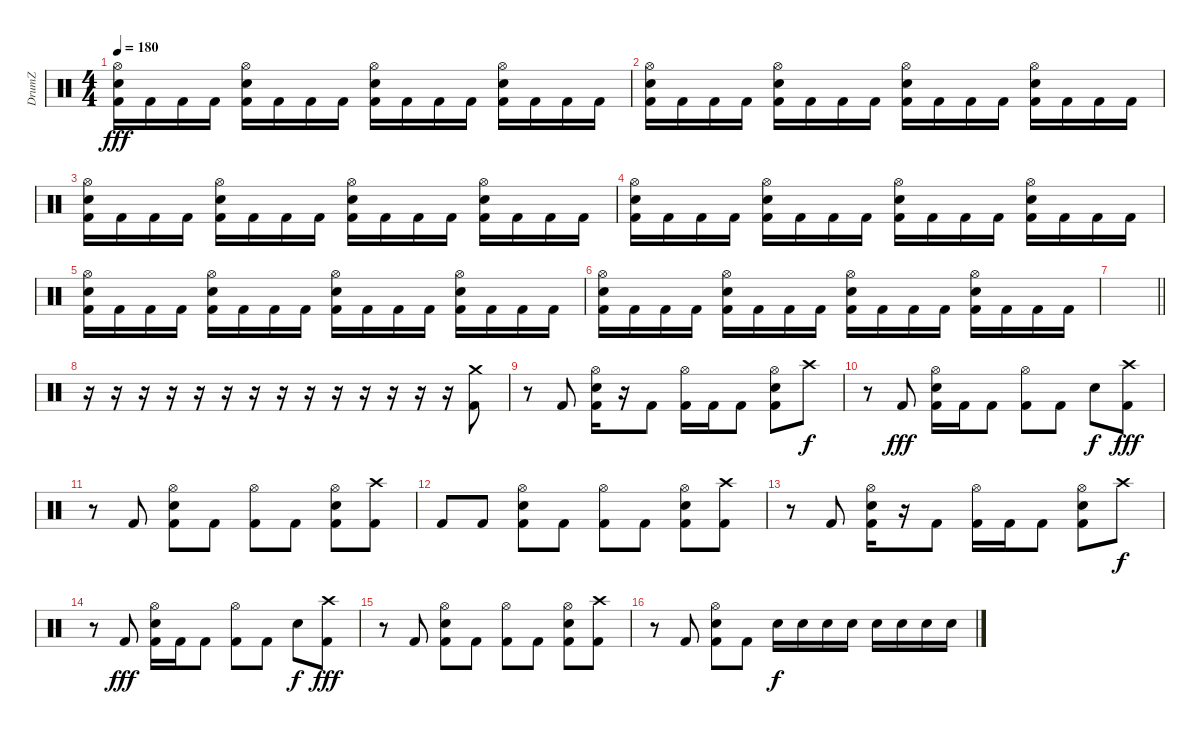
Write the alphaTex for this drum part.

\track ("DrumZ" "DrumZ") {instrument percussion}
\staff {score}
\articulation defaults
\ts (4 4)
\tempo 180
\clef neutral
\ks c
("Hi-Hat (open)" "Electric Snare (hit)" "Kick (hit) 2").16{dy fff} "Kick (hit) 2".16 "Kick (hit) 2".16 "Kick (hit) 2".16 ("Hi-Hat (open)" "Electric Snare (hit)" "Kick (hit) 2").16 "Kick (hit) 2".16 "Kick (hit) 2".16 "Kick (hit) 2".16 ("Hi-Hat (open)" "Electric Snare (hit)" "Kick (hit) 2").16 "Kick (hit) 2".16 "Kick (hit) 2".16 "Kick (hit) 2".16 ("Hi-Hat (open)" "Electric Snare (hit)" "Kick (hit) 2").16 "Kick (hit) 2".16 "Kick (hit) 2".16 "Kick (hit) 2".16 |
("Hi-Hat (open)" "Electric Snare (hit)" "Kick (hit) 2").16 "Kick (hit) 2".16 "Kick (hit) 2".16 "Kick (hit) 2".16 ("Hi-Hat (open)" "Electric Snare (hit)" "Kick (hit) 2").16 "Kick (hit) 2".16 "Kick (hit) 2".16 "Kick (hit) 2".16 ("Hi-Hat (open)" "Electric Snare (hit)" "Kick (hit) 2").16 "Kick (hit) 2".16 "Kick (hit) 2".16 "Kick (hit) 2".16 ("Hi-Hat (open)" "Electric Snare (hit)" "Kick (hit) 2").16 "Kick (hit) 2".16 "Kick (hit) 2".16 "Kick (hit) 2".16 |
("Hi-Hat (open)" "Electric Snare (hit)" "Kick (hit) 2").16 "Kick (hit) 2".16 "Kick (hit) 2".16 "Kick (hit) 2".16 ("Hi-Hat (open)" "Electric Snare (hit)" "Kick (hit) 2").16 "Kick (hit) 2".16 "Kick (hit) 2".16 "Kick (hit) 2".16 ("Hi-Hat (open)" "Electric Snare (hit)" "Kick (hit) 2").16 "Kick (hit) 2".16 "Kick (hit) 2".16 "Kick (hit) 2".16 ("Hi-Hat (open)" "Electric Snare (hit)" "Kick (hit) 2").16 "Kick (hit) 2".16 "Kick (hit) 2".16 "Kick (hit) 2".16 |
("Hi-Hat (open)" "Electric Snare (hit)" "Kick (hit) 2").16 "Kick (hit) 2".16 "Kick (hit) 2".16 "Kick (hit) 2".16 ("Hi-Hat (open)" "Electric Snare (hit)" "Kick (hit) 2").16 "Kick (hit) 2".16 "Kick (hit) 2".16 "Kick (hit) 2".16 ("Hi-Hat (open)" "Electric Snare (hit)" "Kick (hit) 2").16 "Kick (hit) 2".16 "Kick (hit) 2".16 "Kick (hit) 2".16 ("Hi-Hat (open)" "Electric Snare (hit)" "Kick (hit) 2").16 "Kick (hit) 2".16 "Kick (hit) 2".16 "Kick (hit) 2".16 |
("Hi-Hat (open)" "Electric Snare (hit)" "Kick (hit) 2").16 "Kick (hit) 2".16 "Kick (hit) 2".16 "Kick (hit) 2".16 ("Hi-Hat (open)" "Electric Snare (hit)" "Kick (hit) 2").16 "Kick (hit) 2".16 "Kick (hit) 2".16 "Kick (hit) 2".16 ("Hi-Hat (open)" "Electric Snare (hit)" "Kick (hit) 2").16 "Kick (hit) 2".16 "Kick (hit) 2".16 "Kick (hit) 2".16 ("Hi-Hat (open)" "Electric Snare (hit)" "Kick (hit) 2").16 "Kick (hit) 2".16 "Kick (hit) 2".16 "Kick (hit) 2".16 |
("Hi-Hat (open)" "Electric Snare (hit)" "Kick (hit) 2").16 "Kick (hit) 2".16 "Kick (hit) 2".16 "Kick (hit) 2".16 ("Hi-Hat (open)" "Electric Snare (hit)" "Kick (hit) 2").16 "Kick (hit) 2".16 "Kick (hit) 2".16 "Kick (hit) 2".16 ("Hi-Hat (open)" "Electric Snare (hit)" "Kick (hit) 2").16 "Kick (hit) 2".16 "Kick (hit) 2".16 "Kick (hit) 2".16 ("Hi-Hat (open)" "Electric Snare (hit)" "Kick (hit) 2").16 "Kick (hit) 2".16 "Kick (hit) 2".16 "Kick (hit) 2".16 |
\barLineRight lightlight
|
\section ("" "")
r.16 r.16 r.16 r.16 r.16 r.16 r.16 r.16 r.16 r.16 r.16 r.16 r.16 r.16 ("Crash medium (hit)" "Kick (hit) 2").8 |
r.8 "Kick (hit) 2".8 ("Hi-Hat (open)" "Electric Snare (hit)" "Kick (hit) 2").16 r.16 "Kick (hit) 2".8 ("Hi-Hat (open)" "Kick (hit) 2").16 "Kick (hit) 2".16 "Kick (hit) 2".8 ("Hi-Hat (open)" "Electric Snare (hit)" "Kick (hit) 2").8 "Crash high (hit)".8{dy f} |
r.8 "Kick (hit) 2".8{dy fff} ("Hi-Hat (open)" "Electric Snare (hit)" "Kick (hit) 2").16 "Kick (hit) 2".16 "Kick (hit) 2".8 ("Hi-Hat (open)" "Kick (hit) 2").8 "Kick (hit) 2".8 "Electric Snare (hit)".8{dy f} ("Crash high (hit)" "Kick (hit) 2").8{dy fff} |
r.8 "Kick (hit) 2".8 ("Hi-Hat (open)" "Electric Snare (hit)" "Kick (hit) 2").8 "Kick (hit) 2".8 ("Hi-Hat (open)" "Kick (hit) 2").8 "Kick (hit) 2".8 ("Hi-Hat (open)" "Electric Snare (hit)" "Kick (hit) 2").8 ("Crash high (hit)" "Kick (hit) 2").8 |
"Kick (hit) 2".8 "Kick (hit) 2".8 ("Hi-Hat (open)" "Electric Snare (hit)" "Kick (hit) 2").8 "Kick (hit) 2".8 ("Hi-Hat (open)" "Kick (hit) 2").8 "Kick (hit) 2".8 ("Hi-Hat (open)" "Electric Snare (hit)" "Kick (hit) 2").8 ("Crash high (hit)" "Kick (hit) 2").8 |
r.8 "Kick (hit) 2".8 ("Hi-Hat (open)" "Electric Snare (hit)" "Kick (hit) 2").16 r.16 "Kick (hit) 2".8 ("Hi-Hat (open)" "Kick (hit) 2").16 "Kick (hit) 2".16 "Kick (hit) 2".8 ("Hi-Hat (open)" "Electric Snare (hit)" "Kick (hit) 2").8 "Crash high (hit)".8{dy f} |
r.8 "Kick (hit) 2".8{dy fff} ("Hi-Hat (open)" "Electric Snare (hit)" "Kick (hit) 2").16 "Kick (hit) 2".16 "Kick (hit) 2".8 ("Hi-Hat (open)" "Kick (hit) 2").8 "Kick (hit) 2".8 "Electric Snare (hit)".8{dy f} ("Crash high (hit)" "Kick (hit) 2").8{dy fff} |
r.8 "Kick (hit) 2".8 ("Hi-Hat (open)" "Electric Snare (hit)" "Kick (hit) 2").8 "Kick (hit) 2".8 ("Hi-Hat (open)" "Kick (hit) 2").8 "Kick (hit) 2".8 ("Hi-Hat (open)" "Electric Snare (hit)" "Kick (hit) 2").8 ("Crash high (hit)" "Kick (hit) 2").8 |
r.8 "Kick (hit) 2".8 ("Hi-Hat (open)" "Electric Snare (hit)" "Kick (hit) 2").8 "Kick (hit) 2".8 "Electric Snare (hit)".16{dy f} "Electric Snare (hit)".16 "Electric Snare (hit)".16 "Electric Snare (hit)".16 "Electric Snare (hit)".16 "Electric Snare (hit)".16 "Electric Snare (hit)".16 "Electric Snare (hit)".16
